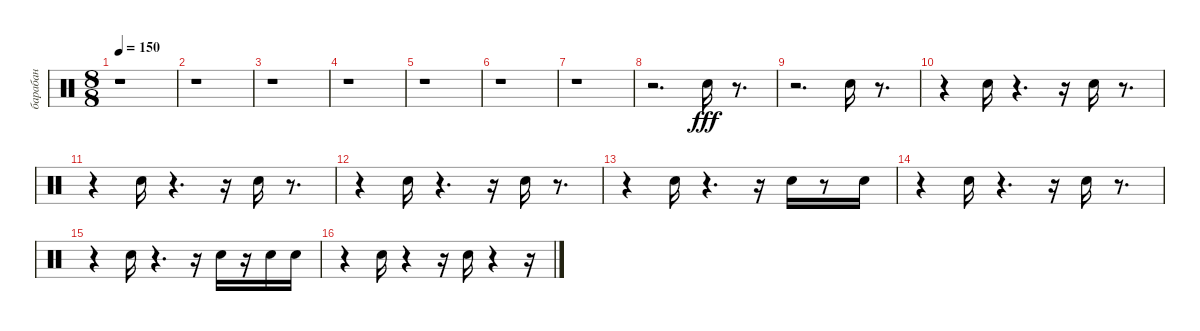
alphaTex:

\track ("барабан" "барабан") {instrument percussion}
\staff {score}
\articulation defaults
\ts (8 8)
\tempo 150
\clef neutral
\ks c
r.1{dy fff} |
r.1 |
r.1 |
r.1 |
r.1 |
r.1 |
r.1 |
r.2{d} "Snare (hit) 2".16 r.8{d} |
r.2{d} "Snare (hit) 2".16 r.8{d} |
r.4 "Snare (hit) 2".16 r.4{d} r.16 "Snare (hit) 2".16 r.8{d} |
r.4 "Snare (hit) 2".16 r.4{d} r.16 "Snare (hit) 2".16 r.8{d} |
r.4 "Snare (hit) 2".16 r.4{d} r.16 "Snare (hit) 2".16 r.8{d} |
r.4 "Snare (hit) 2".16 r.4{d} r.16 "Snare (hit) 2".16 r.8 "Snare (hit) 2".16 |
r.4 "Snare (hit) 2".16 r.4{d} r.16 "Snare (hit) 2".16 r.8{d} |
r.4 "Snare (hit) 2".16 r.4{d} r.16 "Snare (hit) 2".16 r.16 "Snare (hit) 2".16 "Snare (hit) 2".16 |
r.4 "Snare (hit) 2".16 r.4 r.16 "Snare (hit) 2".16 r.4 r.16
